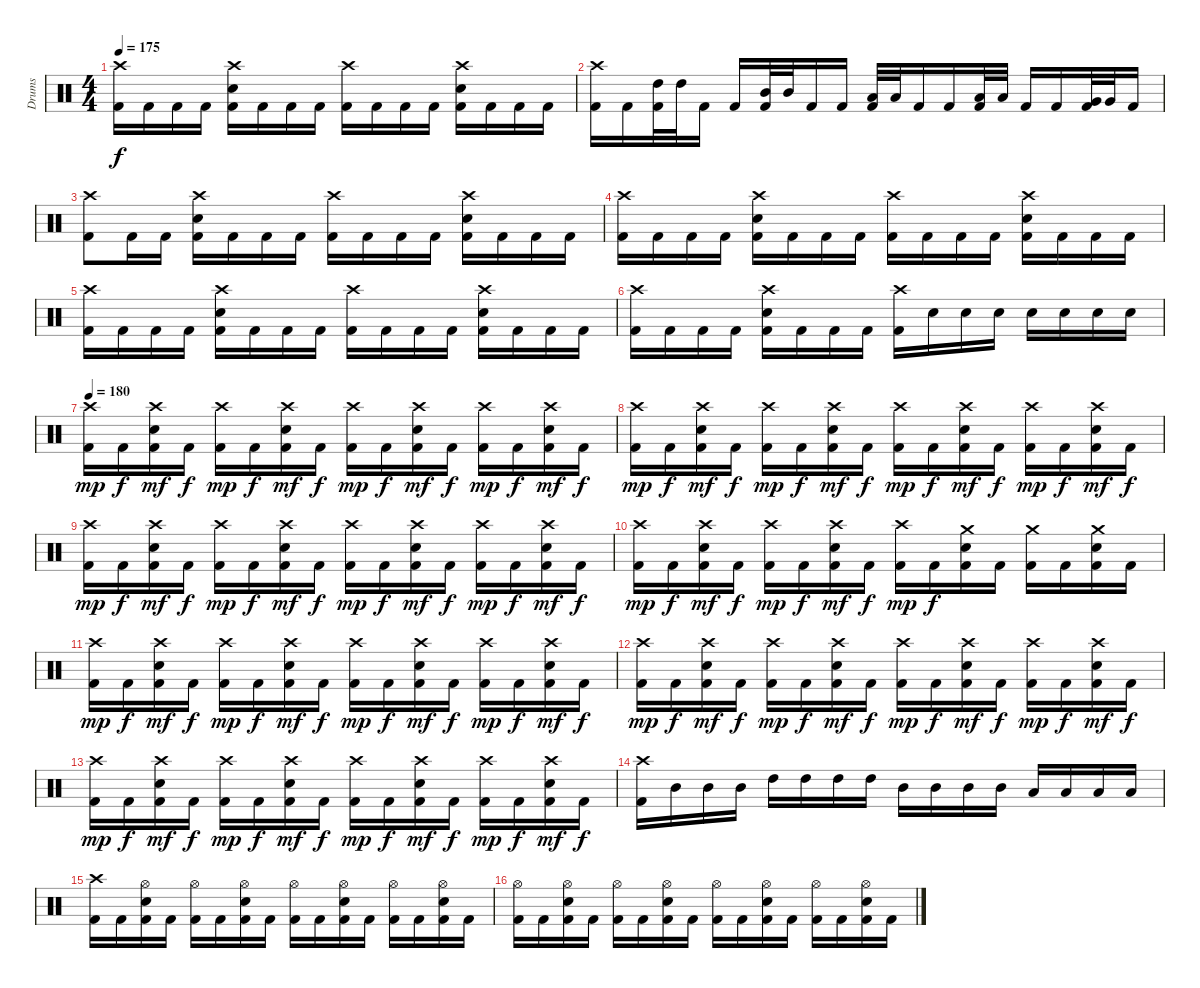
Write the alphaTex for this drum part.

\track ("Drums" "Drums") {instrument percussion}
\staff {score}
\articulation defaults
\ts (4 4)
\tempo 175
\clef neutral
\ks c
("Crash high (hit)" "Kick (hit) 2").16{dy f} "Kick (hit) 2".16 "Kick (hit) 2".16 "Kick (hit) 2".16 ("Crash high (hit)" "Electric Snare (hit)" "Kick (hit) 2").16 "Kick (hit) 2".16 "Kick (hit) 2".16 "Kick (hit) 2".16 ("Crash high (hit)" "Kick (hit) 2").16 "Kick (hit) 2".16 "Kick (hit) 2".16 "Kick (hit) 2".16 ("Crash high (hit)" "Electric Snare (hit)" "Kick (hit) 2").16 "Kick (hit) 2".16 "Kick (hit) 2".16 "Kick (hit) 2".16 |
("Crash high (hit)" "Kick (hit) 2").16 "Kick (hit) 2".16 ("High Tom (hit)" "Kick (hit) 2").32 "High Tom (hit)".32 "Kick (hit) 2".16 "Kick (hit) 2".16 ("Mid Tom (hit)" "Kick (hit) 2").32 "Mid Tom (hit)".32 "Kick (hit) 2".16 "Kick (hit) 2".16 ("Low Tom (hit)" "Kick (hit) 2").32 "Low Tom (hit)".32 "Kick (hit) 2".16 "Kick (hit) 2".16 ("Low Tom (hit)" "Kick (hit) 2").32 "Low Tom (hit)".32 "Kick (hit) 2".16 "Kick (hit) 2".16 ("Very Low Tom (hit)" "Kick (hit) 2").32 "Very Low Tom (hit)".32 "Kick (hit) 2".16 |
("Crash high (hit)" "Kick (hit) 2").8 "Kick (hit) 2".16 "Kick (hit) 2".16 ("Crash high (hit)" "Electric Snare (hit)" "Kick (hit) 2").16 "Kick (hit) 2".16 "Kick (hit) 2".16 "Kick (hit) 2".16 ("Crash high (hit)" "Kick (hit) 2").16 "Kick (hit) 2".16 "Kick (hit) 2".16 "Kick (hit) 2".16 ("Crash high (hit)" "Electric Snare (hit)" "Kick (hit) 2").16 "Kick (hit) 2".16 "Kick (hit) 2".16 "Kick (hit) 2".16 |
("Crash high (hit)" "Kick (hit) 2").16 "Kick (hit) 2".16 "Kick (hit) 2".16 "Kick (hit) 2".16 ("Crash high (hit)" "Electric Snare (hit)" "Kick (hit) 2").16 "Kick (hit) 2".16 "Kick (hit) 2".16 "Kick (hit) 2".16 ("Crash high (hit)" "Kick (hit) 2").16 "Kick (hit) 2".16 "Kick (hit) 2".16 "Kick (hit) 2".16 ("Crash high (hit)" "Electric Snare (hit)" "Kick (hit) 2").16 "Kick (hit) 2".16 "Kick (hit) 2".16 "Kick (hit) 2".16 |
("Crash high (hit)" "Kick (hit) 2").16 "Kick (hit) 2".16 "Kick (hit) 2".16 "Kick (hit) 2".16 ("Crash high (hit)" "Electric Snare (hit)" "Kick (hit) 2").16 "Kick (hit) 2".16 "Kick (hit) 2".16 "Kick (hit) 2".16 ("Crash high (hit)" "Kick (hit) 2").16 "Kick (hit) 2".16 "Kick (hit) 2".16 "Kick (hit) 2".16 ("Crash high (hit)" "Electric Snare (hit)" "Kick (hit) 2").16 "Kick (hit) 2".16 "Kick (hit) 2".16 "Kick (hit) 2".16 |
("Crash high (hit)" "Kick (hit) 2").16 "Kick (hit) 2".16 "Kick (hit) 2".16 "Kick (hit) 2".16 ("Crash high (hit)" "Electric Snare (hit)" "Kick (hit) 2").16 "Kick (hit) 2".16 "Kick (hit) 2".16 "Kick (hit) 2".16 ("Crash high (hit)" "Kick (hit) 2").16 "Electric Snare (hit)".16 "Electric Snare (hit)".16 "Electric Snare (hit)".16 "Electric Snare (hit)".16 "Electric Snare (hit)".16 "Electric Snare (hit)".16 "Electric Snare (hit)".16 |
\tempo 180
("Crash high (hit)" "Kick (hit) 2").16{dy mp} "Kick (hit) 2".16{dy f} ("Crash high (hit)" "Electric Snare (hit)" "Kick (hit) 2").16{dy mf} "Kick (hit) 2".16{dy f} ("Crash high (hit)" "Kick (hit) 2").16{dy mp} "Kick (hit) 2".16{dy f} ("Crash high (hit)" "Electric Snare (hit)" "Kick (hit) 2").16{dy mf} "Kick (hit) 2".16{dy f} ("Crash high (hit)" "Kick (hit) 2").16{dy mp} "Kick (hit) 2".16{dy f} ("Crash high (hit)" "Electric Snare (hit)" "Kick (hit) 2").16{dy mf} "Kick (hit) 2".16{dy f} ("Crash high (hit)" "Kick (hit) 2").16{dy mp} "Kick (hit) 2".16{dy f} ("Crash high (hit)" "Electric Snare (hit)" "Kick (hit) 2").16{dy mf} "Kick (hit) 2".16{dy f} |
("Crash high (hit)" "Kick (hit) 2").16{dy mp} "Kick (hit) 2".16{dy f} ("Crash high (hit)" "Electric Snare (hit)" "Kick (hit) 2").16{dy mf} "Kick (hit) 2".16{dy f} ("Crash high (hit)" "Kick (hit) 2").16{dy mp} "Kick (hit) 2".16{dy f} ("Crash high (hit)" "Electric Snare (hit)" "Kick (hit) 2").16{dy mf} "Kick (hit) 2".16{dy f} ("Crash high (hit)" "Kick (hit) 2").16{dy mp} "Kick (hit) 2".16{dy f} ("Crash high (hit)" "Electric Snare (hit)" "Kick (hit) 2").16{dy mf} "Kick (hit) 2".16{dy f} ("Crash high (hit)" "Kick (hit) 2").16{dy mp} "Kick (hit) 2".16{dy f} ("Crash high (hit)" "Electric Snare (hit)" "Kick (hit) 2").16{dy mf} "Kick (hit) 2".16{dy f} |
("Crash high (hit)" "Kick (hit) 2").16{dy mp} "Kick (hit) 2".16{dy f} ("Crash high (hit)" "Electric Snare (hit)" "Kick (hit) 2").16{dy mf} "Kick (hit) 2".16{dy f} ("Crash high (hit)" "Kick (hit) 2").16{dy mp} "Kick (hit) 2".16{dy f} ("Crash high (hit)" "Electric Snare (hit)" "Kick (hit) 2").16{dy mf} "Kick (hit) 2".16{dy f} ("Crash high (hit)" "Kick (hit) 2").16{dy mp} "Kick (hit) 2".16{dy f} ("Crash high (hit)" "Electric Snare (hit)" "Kick (hit) 2").16{dy mf} "Kick (hit) 2".16{dy f} ("Crash high (hit)" "Kick (hit) 2").16{dy mp} "Kick (hit) 2".16{dy f} ("Crash high (hit)" "Electric Snare (hit)" "Kick (hit) 2").16{dy mf} "Kick (hit) 2".16{dy f} |
("Crash high (hit)" "Kick (hit) 2").16{dy mp} "Kick (hit) 2".16{dy f} ("Crash high (hit)" "Electric Snare (hit)" "Kick (hit) 2").16{dy mf} "Kick (hit) 2".16{dy f} ("Crash high (hit)" "Kick (hit) 2").16{dy mp} "Kick (hit) 2".16{dy f} ("Crash high (hit)" "Electric Snare (hit)" "Kick (hit) 2").16{dy mf} "Kick (hit) 2".16{dy f} ("Crash high (hit)" "Kick (hit) 2").16{dy mp} "Kick (hit) 2".16{dy f} ("Crash medium (hit)" "Electric Snare (hit)" "Kick (hit) 2").16 "Kick (hit) 2".16 ("Crash medium (hit)" "Kick (hit) 2").16 "Kick (hit) 2".16 ("Crash medium (hit)" "Electric Snare (hit)" "Kick (hit) 2").16 "Kick (hit) 2".16 |
("Crash high (hit)" "Kick (hit) 2").16{dy mp} "Kick (hit) 2".16{dy f} ("Crash high (hit)" "Electric Snare (hit)" "Kick (hit) 2").16{dy mf} "Kick (hit) 2".16{dy f} ("Crash high (hit)" "Kick (hit) 2").16{dy mp} "Kick (hit) 2".16{dy f} ("Crash high (hit)" "Electric Snare (hit)" "Kick (hit) 2").16{dy mf} "Kick (hit) 2".16{dy f} ("Crash high (hit)" "Kick (hit) 2").16{dy mp} "Kick (hit) 2".16{dy f} ("Crash high (hit)" "Electric Snare (hit)" "Kick (hit) 2").16{dy mf} "Kick (hit) 2".16{dy f} ("Crash high (hit)" "Kick (hit) 2").16{dy mp} "Kick (hit) 2".16{dy f} ("Crash high (hit)" "Electric Snare (hit)" "Kick (hit) 2").16{dy mf} "Kick (hit) 2".16{dy f} |
("Crash high (hit)" "Kick (hit) 2").16{dy mp} "Kick (hit) 2".16{dy f} ("Crash high (hit)" "Electric Snare (hit)" "Kick (hit) 2").16{dy mf} "Kick (hit) 2".16{dy f} ("Crash high (hit)" "Kick (hit) 2").16{dy mp} "Kick (hit) 2".16{dy f} ("Crash high (hit)" "Electric Snare (hit)" "Kick (hit) 2").16{dy mf} "Kick (hit) 2".16{dy f} ("Crash high (hit)" "Kick (hit) 2").16{dy mp} "Kick (hit) 2".16{dy f} ("Crash high (hit)" "Electric Snare (hit)" "Kick (hit) 2").16{dy mf} "Kick (hit) 2".16{dy f} ("Crash high (hit)" "Kick (hit) 2").16{dy mp} "Kick (hit) 2".16{dy f} ("Crash high (hit)" "Electric Snare (hit)" "Kick (hit) 2").16{dy mf} "Kick (hit) 2".16{dy f} |
("Crash high (hit)" "Kick (hit) 2").16{dy mp} "Kick (hit) 2".16{dy f} ("Crash high (hit)" "Electric Snare (hit)" "Kick (hit) 2").16{dy mf} "Kick (hit) 2".16{dy f} ("Crash high (hit)" "Kick (hit) 2").16{dy mp} "Kick (hit) 2".16{dy f} ("Crash high (hit)" "Electric Snare (hit)" "Kick (hit) 2").16{dy mf} "Kick (hit) 2".16{dy f} ("Crash high (hit)" "Kick (hit) 2").16{dy mp} "Kick (hit) 2".16{dy f} ("Crash high (hit)" "Electric Snare (hit)" "Kick (hit) 2").16{dy mf} "Kick (hit) 2".16{dy f} ("Crash high (hit)" "Kick (hit) 2").16{dy mp} "Kick (hit) 2".16{dy f} ("Crash high (hit)" "Electric Snare (hit)" "Kick (hit) 2").16{dy mf} "Kick (hit) 2".16{dy f} |
("Crash high (hit)" "Kick (hit) 2").16 "Mid Tom (hit)".16 "Mid Tom (hit)".16 "Mid Tom (hit)".16 "High Tom (hit)".16 "High Tom (hit)".16 "High Tom (hit)".16 "High Tom (hit)".16 "Mid Tom (hit)".16 "Mid Tom (hit)".16 "Mid Tom (hit)".16 "Mid Tom (hit)".16 "Low Tom (hit)".16 "Low Tom (hit)".16 "Low Tom (hit)".16 "Low Tom (hit)".16 |
("Crash high (hit)" "Kick (hit) 2").16 "Kick (hit) 2".16 ("Hi-Hat (open)" "Electric Snare (hit)" "Kick (hit) 2").16 "Kick (hit) 2".16 ("Hi-Hat (open)" "Kick (hit) 2").16 "Kick (hit) 2".16 ("Hi-Hat (open)" "Electric Snare (hit)" "Kick (hit) 2").16 "Kick (hit) 2".16 ("Hi-Hat (open)" "Kick (hit) 2").16 "Kick (hit) 2".16 ("Hi-Hat (open)" "Electric Snare (hit)" "Kick (hit) 2").16 "Kick (hit) 2".16 ("Hi-Hat (open)" "Kick (hit) 2").16 "Kick (hit) 2".16 ("Hi-Hat (open)" "Electric Snare (hit)" "Kick (hit) 2").16 "Kick (hit) 2".16 |
("Hi-Hat (open)" "Kick (hit) 2").16 "Kick (hit) 2".16 ("Hi-Hat (open)" "Electric Snare (hit)" "Kick (hit) 2").16 "Kick (hit) 2".16 ("Hi-Hat (open)" "Kick (hit) 2").16 "Kick (hit) 2".16 ("Hi-Hat (open)" "Electric Snare (hit)" "Kick (hit) 2").16 "Kick (hit) 2".16 ("Hi-Hat (open)" "Kick (hit) 2").16 "Kick (hit) 2".16 ("Hi-Hat (open)" "Electric Snare (hit)" "Kick (hit) 2").16 "Kick (hit) 2".16 ("Hi-Hat (open)" "Kick (hit) 2").16 "Kick (hit) 2".16 ("Hi-Hat (open)" "Electric Snare (hit)" "Kick (hit) 2").16 "Kick (hit) 2".16
